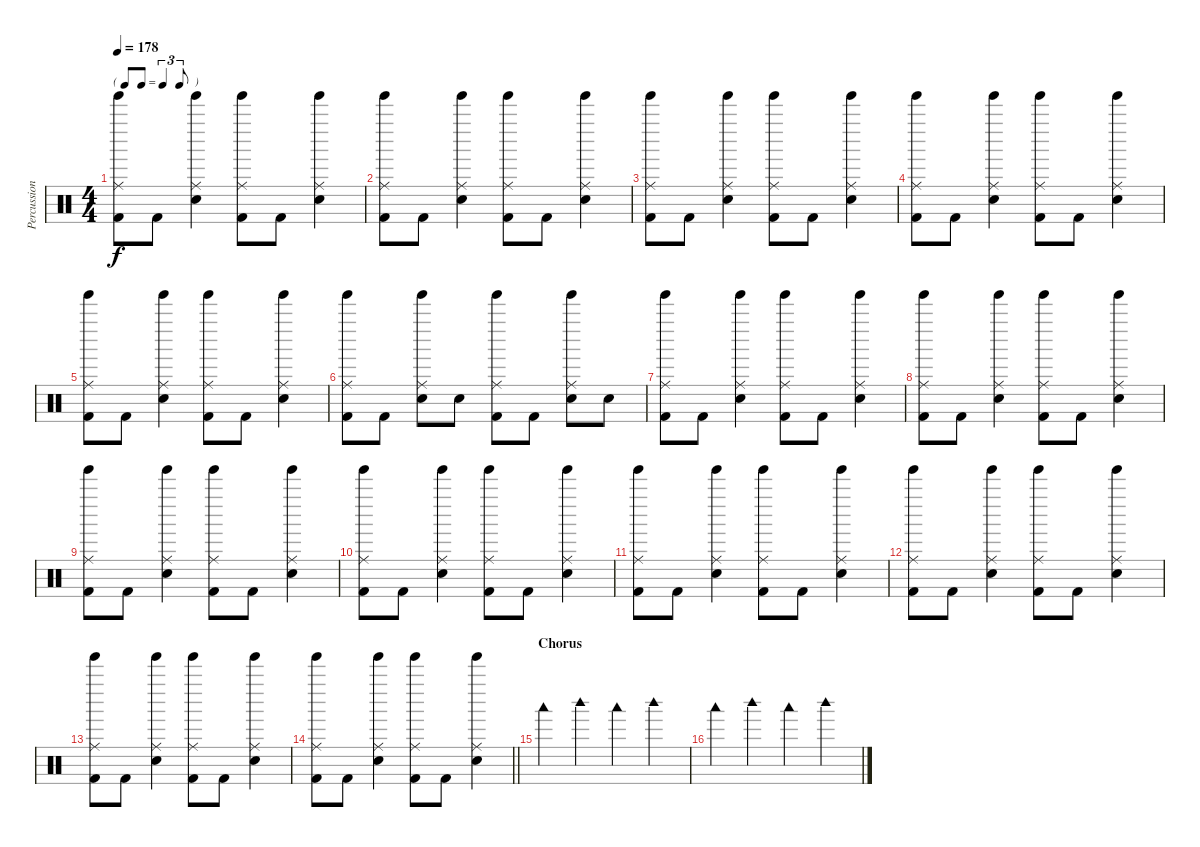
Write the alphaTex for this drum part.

\track ("Percussion" "Percussion") {instrument percussion}
\staff {score}
\articulation defaults
\ts (4 4)
\tf triplet8th
\tempo 178
\clef neutral
\ks c
("Ride (middle)" "Tinkle Bell (hit)" "Kick (hit) 2").8{dy f} "Kick (hit) 2".8 ("Ride (middle)" "Tinkle Bell (hit)" "Snare (hit) 2").4 ("Ride (middle)" "Tinkle Bell (hit)" "Kick (hit) 2").8 "Kick (hit) 2".8 ("Ride (middle)" "Tinkle Bell (hit)" "Snare (hit) 2").4 |
("Ride (middle)" "Tinkle Bell (hit)" "Kick (hit) 2").8 "Kick (hit) 2".8 ("Ride (middle)" "Tinkle Bell (hit)" "Snare (hit) 2").4 ("Ride (middle)" "Tinkle Bell (hit)" "Kick (hit) 2").8 "Kick (hit) 2".8 ("Ride (middle)" "Tinkle Bell (hit)" "Snare (hit) 2").4 |
("Ride (middle)" "Tinkle Bell (hit)" "Kick (hit) 2").8 "Kick (hit) 2".8 ("Ride (middle)" "Tinkle Bell (hit)" "Snare (hit) 2").4 ("Ride (middle)" "Tinkle Bell (hit)" "Kick (hit) 2").8 "Kick (hit) 2".8 ("Ride (middle)" "Tinkle Bell (hit)" "Snare (hit) 2").4 |
("Ride (middle)" "Tinkle Bell (hit)" "Kick (hit) 2").8 "Kick (hit) 2".8 ("Ride (middle)" "Tinkle Bell (hit)" "Snare (hit) 2").4 ("Ride (middle)" "Tinkle Bell (hit)" "Kick (hit) 2").8 "Kick (hit) 2".8 ("Ride (middle)" "Tinkle Bell (hit)" "Snare (hit) 2").4 |
("Ride (middle)" "Tinkle Bell (hit)" "Kick (hit) 2").8 "Kick (hit) 2".8 ("Ride (middle)" "Tinkle Bell (hit)" "Snare (hit) 2").4 ("Ride (middle)" "Tinkle Bell (hit)" "Kick (hit) 2").8 "Kick (hit) 2".8 ("Ride (middle)" "Tinkle Bell (hit)" "Snare (hit) 2").4 |
("Ride (middle)" "Tinkle Bell (hit)" "Kick (hit) 2").8 "Kick (hit) 2".8 ("Ride (middle)" "Tinkle Bell (hit)" "Snare (hit) 2").8 "Snare (hit) 2".8 ("Ride (middle)" "Tinkle Bell (hit)" "Kick (hit) 2").8 "Kick (hit) 2".8 ("Ride (middle)" "Tinkle Bell (hit)" "Snare (hit) 2").8 "Snare (hit) 2".8 |
("Ride (middle)" "Tinkle Bell (hit)" "Kick (hit) 2").8 "Kick (hit) 2".8 ("Ride (middle)" "Tinkle Bell (hit)" "Snare (hit) 2").4 ("Ride (middle)" "Tinkle Bell (hit)" "Kick (hit) 2").8 "Kick (hit) 2".8 ("Ride (middle)" "Tinkle Bell (hit)" "Snare (hit) 2").4 |
("Ride (middle)" "Tinkle Bell (hit)" "Kick (hit) 2").8 "Kick (hit) 2".8 ("Ride (middle)" "Tinkle Bell (hit)" "Snare (hit) 2").4 ("Ride (middle)" "Tinkle Bell (hit)" "Kick (hit) 2").8 "Kick (hit) 2".8 ("Ride (middle)" "Tinkle Bell (hit)" "Snare (hit) 2").4 |
("Ride (middle)" "Tinkle Bell (hit)" "Kick (hit) 2").8 "Kick (hit) 2".8 ("Ride (middle)" "Tinkle Bell (hit)" "Snare (hit) 2").4 ("Ride (middle)" "Tinkle Bell (hit)" "Kick (hit) 2").8 "Kick (hit) 2".8 ("Ride (middle)" "Tinkle Bell (hit)" "Snare (hit) 2").4 |
("Ride (middle)" "Tinkle Bell (hit)" "Kick (hit) 2").8 "Kick (hit) 2".8 ("Ride (middle)" "Tinkle Bell (hit)" "Snare (hit) 2").4 ("Ride (middle)" "Tinkle Bell (hit)" "Kick (hit) 2").8 "Kick (hit) 2".8 ("Ride (middle)" "Tinkle Bell (hit)" "Snare (hit) 2").4 |
("Ride (middle)" "Tinkle Bell (hit)" "Kick (hit) 2").8 "Kick (hit) 2".8 ("Ride (middle)" "Tinkle Bell (hit)" "Snare (hit) 2").4 ("Ride (middle)" "Tinkle Bell (hit)" "Kick (hit) 2").8 "Kick (hit) 2".8 ("Ride (middle)" "Tinkle Bell (hit)" "Snare (hit) 2").4 |
("Ride (middle)" "Tinkle Bell (hit)" "Kick (hit) 2").8 "Kick (hit) 2".8 ("Ride (middle)" "Tinkle Bell (hit)" "Snare (hit) 2").4 ("Ride (middle)" "Tinkle Bell (hit)" "Kick (hit) 2").8 "Kick (hit) 2".8 ("Ride (middle)" "Tinkle Bell (hit)" "Snare (hit) 2").4 |
("Ride (middle)" "Tinkle Bell (hit)" "Kick (hit) 2").8 "Kick (hit) 2".8 ("Ride (middle)" "Tinkle Bell (hit)" "Snare (hit) 2").4 ("Ride (middle)" "Tinkle Bell (hit)" "Kick (hit) 2").8 "Kick (hit) 2".8 ("Ride (middle)" "Tinkle Bell (hit)" "Snare (hit) 2").4 |
\barLineRight lightlight
("Ride (middle)" "Tinkle Bell (hit)" "Kick (hit) 2").8 "Kick (hit) 2".8 ("Ride (middle)" "Tinkle Bell (hit)" "Snare (hit) 2").4 ("Ride (middle)" "Tinkle Bell (hit)" "Kick (hit) 2").8 "Kick (hit) 2".8 ("Ride (middle)" "Tinkle Bell (hit)" "Snare (hit) 2").4 |
\section ("" "Chorus")
"Woodblock low (hit)".4 "Woodblock high (hit)".4 "Woodblock low (hit)".4 "Woodblock high (hit)".4 |
"Woodblock low (hit)".4 "Woodblock high (hit)".4 "Woodblock low (hit)".4 "Woodblock high (hit)".4
